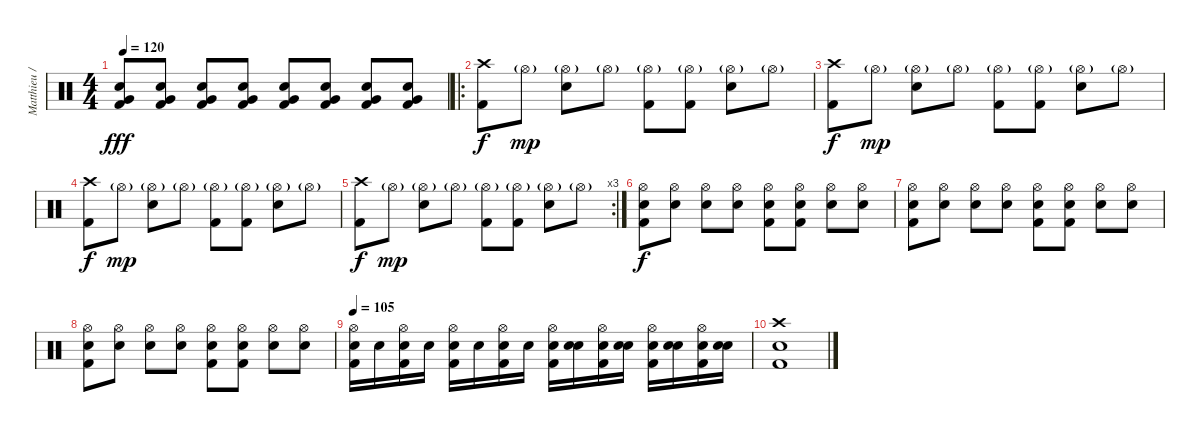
\track ("Matthieu / drums" "Matthieu /") {instrument percussion}
\staff {score}
\articulation defaults
\ts (4 4)
\tempo 120
\clef neutral
\ks c
("Very Low Tom (hit)" "Snare (hit) 2" "Kick (hit) 2").8{dy fff} ("Very Low Tom (hit)" "Snare (hit) 2" "Kick (hit) 2").8 ("Very Low Tom (hit)" "Snare (hit) 2" "Kick (hit) 2").8 ("Very Low Tom (hit)" "Snare (hit) 2" "Kick (hit) 2").8 ("Very Low Tom (hit)" "Snare (hit) 2" "Kick (hit) 2").8 ("Very Low Tom (hit)" "Snare (hit) 2" "Kick (hit) 2").8 ("Very Low Tom (hit)" "Snare (hit) 2" "Kick (hit) 2").8 ("Very Low Tom (hit)" "Snare (hit) 2" "Kick (hit) 2").8 |
\ro
("Crash high (hit)" "Kick (hit) 2").8{dy f volume 16} "Hi-Hat (open)"{g}.8{dy mp} ("Hi-Hat (open)"{g} "Snare (hit) 2").8 "Hi-Hat (open)"{g}.8 ("Hi-Hat (open)"{g} "Kick (hit) 2").8 ("Hi-Hat (open)"{g} "Kick (hit) 2").8 ("Hi-Hat (open)"{g} "Snare (hit) 2").8 "Hi-Hat (open)"{g}.8 |
("Crash high (hit)" "Kick (hit) 2").8{dy f} "Hi-Hat (open)"{g}.8{dy mp} ("Hi-Hat (open)"{g} "Snare (hit) 2").8 "Hi-Hat (open)"{g}.8 ("Hi-Hat (open)"{g} "Kick (hit) 2").8 ("Hi-Hat (open)"{g} "Kick (hit) 2").8 ("Hi-Hat (open)"{g} "Snare (hit) 2").8 "Hi-Hat (open)"{g}.8 |
("Crash high (hit)" "Kick (hit) 2").8{dy f} "Hi-Hat (open)"{g}.8{dy mp} ("Hi-Hat (open)"{g} "Snare (hit) 2").8 "Hi-Hat (open)"{g}.8 ("Hi-Hat (open)"{g} "Kick (hit) 2").8 ("Hi-Hat (open)"{g} "Kick (hit) 2").8 ("Hi-Hat (open)"{g} "Snare (hit) 2").8 "Hi-Hat (open)"{g}.8 |
\rc 3
("Crash high (hit)" "Kick (hit) 2").8{dy f} "Hi-Hat (open)"{g}.8{dy mp} ("Hi-Hat (open)"{g} "Snare (hit) 2").8 "Hi-Hat (open)"{g}.8 ("Hi-Hat (open)"{g} "Kick (hit) 2").8 ("Hi-Hat (open)"{g} "Kick (hit) 2").8 ("Hi-Hat (open)"{g} "Snare (hit) 2").8 "Hi-Hat (open)"{g}.8 |
("Hi-Hat (open)" "Snare (hit) 2" "Kick (hit) 2").8{dy f} ("Hi-Hat (open)" "Snare (hit) 2").8 ("Hi-Hat (open)" "Snare (hit) 2").8 ("Hi-Hat (open)" "Snare (hit) 2").8 ("Hi-Hat (open)" "Snare (hit) 2" "Kick (hit) 2").8 ("Hi-Hat (open)" "Snare (hit) 2" "Kick (hit) 2").8 ("Hi-Hat (open)" "Snare (hit) 2").8 ("Hi-Hat (open)" "Snare (hit) 2").8 |
("Hi-Hat (open)" "Snare (hit) 2" "Kick (hit) 2").8 ("Hi-Hat (open)" "Snare (hit) 2").8 ("Hi-Hat (open)" "Snare (hit) 2").8 ("Hi-Hat (open)" "Snare (hit) 2").8 ("Hi-Hat (open)" "Snare (hit) 2" "Kick (hit) 2").8 ("Hi-Hat (open)" "Snare (hit) 2" "Kick (hit) 2").8 ("Hi-Hat (open)" "Snare (hit) 2").8 ("Hi-Hat (open)" "Snare (hit) 2").8 |
("Hi-Hat (open)" "Snare (hit) 2" "Kick (hit) 2").8 ("Hi-Hat (open)" "Snare (hit) 2").8 ("Hi-Hat (open)" "Snare (hit) 2").8 ("Hi-Hat (open)" "Snare (hit) 2").8 ("Hi-Hat (open)" "Snare (hit) 2" "Kick (hit) 2").8 ("Hi-Hat (open)" "Snare (hit) 2" "Kick (hit) 2").8 ("Hi-Hat (open)" "Snare (hit) 2").8 ("Hi-Hat (open)" "Snare (hit) 2").8 |
\tempo 105
("Hi-Hat (open)" "Snare (hit) 2" "Kick (hit) 2").16 "Snare (hit)".16 ("Hi-Hat (open)" "Snare (hit) 2" "Kick (hit) 2").16 "Snare (hit)".16 ("Hi-Hat (open)" "Snare (hit) 2" "Kick (hit) 2").16 "Snare (hit)".16 ("Hi-Hat (open)" "Snare (hit) 2" "Kick (hit) 2").16 "Snare (hit)".16 ("Hi-Hat (open)" "Snare (hit) 2" "Kick (hit) 2").16 ("Snare (hit)" "Snare (hit) 2").16 ("Hi-Hat (open)" "Snare (hit) 2" "Kick (hit) 2").16 ("Snare (hit)" "Snare (hit) 2").16 ("Hi-Hat (open)" "Snare (hit) 2" "Kick (hit) 2").16 ("Snare (hit)" "Snare (hit) 2").16 ("Hi-Hat (open)" "Snare (hit) 2" "Kick (hit) 2").16 ("Snare (hit)" "Snare (hit) 2").16 |
("Crash high (hit)" "Snare (hit) 2" "Kick (hit) 2").1
